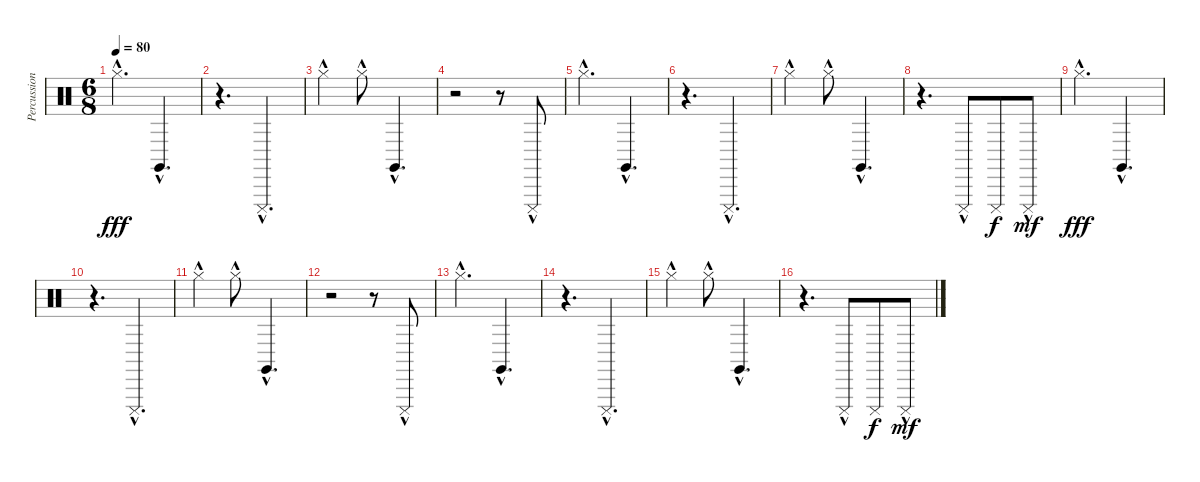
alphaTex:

\track ("Percussion" "Percussion") {instrument percussion}
\staff {score}
\articulation defaults
\ts (6 8)
\tempo 80
\clef neutral
\ks c "Hi-Hat (closed)"{hac}.4{d dy fff} "Claves (hit)"{hac}.4{d}
|
r.4{d} "Cuica (mute)"{hac}.4{d} |
"Hi-Hat (closed)"{hac}.4 "Hi-Hat (closed)"{hac}.8 "Claves (hit)"{hac}.4{d} |
r.2 r.8 "Cuica (mute)"{hac}.8 |
"Hi-Hat (closed)"{hac}.4{d} "Claves (hit)"{hac}.4{d} |
r.4{d} "Cuica (mute)"{hac}.4{d} |
"Hi-Hat (closed)"{hac}.4 "Hi-Hat (closed)"{hac}.8 "Claves (hit)"{hac}.4{d} |
r.4{d} "Cuica (mute)"{hac}.8 "Cuica (mute)".8{dy f} "Cuica (mute)"{hac}.8{dy mf} |
"Hi-Hat (closed)"{hac}.4{d dy fff} "Claves (hit)"{hac}.4{d} |
r.4{d} "Cuica (mute)"{hac}.4{d} |
"Hi-Hat (closed)"{hac}.4 "Hi-Hat (closed)"{hac}.8 "Claves (hit)"{hac}.4{d} |
r.2 r.8 "Cuica (mute)"{hac}.8 |
"Hi-Hat (closed)"{hac}.4{d} "Claves (hit)"{hac}.4{d} |
r.4{d} "Cuica (mute)"{hac}.4{d} |
"Hi-Hat (closed)"{hac}.4 "Hi-Hat (closed)"{hac}.8 "Claves (hit)"{hac}.4{d} |
r.4{d} "Cuica (mute)"{hac}.8 "Cuica (mute)".8{dy f} "Cuica (mute)"{hac}.8{dy mf}
